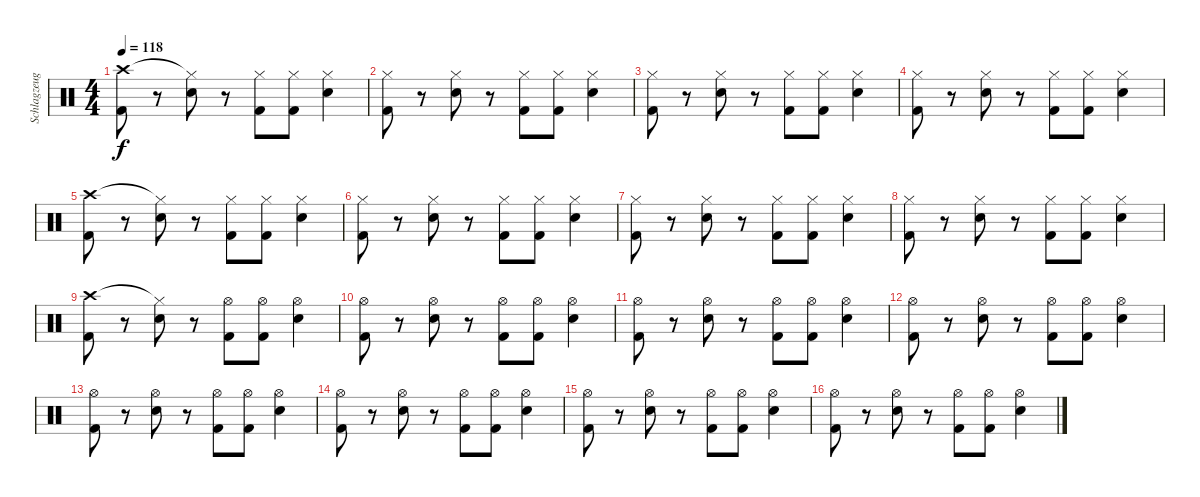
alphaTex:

\track ("Schlagzeug" "Schlagzeug") {instrument percussion}
\staff {score}
\articulation defaults
\ts (4 4)
\tempo 118
\clef neutral
\ks c
("Crash high (hit)" "Kick (hit) 2").8{dy f} r.8 ("Hi-Hat (closed)"{t} "Electric Snare (hit)").8 r.8 ("Hi-Hat (closed)" "Kick (hit) 2").8 ("Hi-Hat (closed)" "Kick (hit) 2").8 ("Hi-Hat (closed)" "Electric Snare (hit)").4 |
("Hi-Hat (closed)" "Kick (hit) 2").8 r.8 ("Hi-Hat (closed)" "Electric Snare (hit)").8 r.8 ("Hi-Hat (closed)" "Kick (hit) 2").8 ("Hi-Hat (closed)" "Kick (hit) 2").8 ("Hi-Hat (closed)" "Electric Snare (hit)").4 |
("Hi-Hat (closed)" "Kick (hit) 2").8 r.8 ("Hi-Hat (closed)" "Electric Snare (hit)").8 r.8 ("Hi-Hat (closed)" "Kick (hit) 2").8 ("Hi-Hat (closed)" "Kick (hit) 2").8 ("Hi-Hat (closed)" "Electric Snare (hit)").4 |
("Hi-Hat (closed)" "Kick (hit) 2").8 r.8 ("Hi-Hat (closed)" "Electric Snare (hit)").8 r.8 ("Hi-Hat (closed)" "Kick (hit) 2").8 ("Hi-Hat (closed)" "Kick (hit) 2").8 ("Hi-Hat (closed)" "Electric Snare (hit)").4 |
("Crash high (hit)" "Kick (hit) 2").8 r.8 ("Hi-Hat (closed)"{t} "Electric Snare (hit)").8 r.8 ("Hi-Hat (closed)" "Kick (hit) 2").8 ("Hi-Hat (closed)" "Kick (hit) 2").8 ("Hi-Hat (closed)" "Electric Snare (hit)").4 |
("Hi-Hat (closed)" "Kick (hit) 2").8 r.8 ("Hi-Hat (closed)" "Electric Snare (hit)").8 r.8 ("Hi-Hat (closed)" "Kick (hit) 2").8 ("Hi-Hat (closed)" "Kick (hit) 2").8 ("Hi-Hat (closed)" "Electric Snare (hit)").4 |
("Hi-Hat (closed)" "Kick (hit) 2").8 r.8 ("Hi-Hat (closed)" "Electric Snare (hit)").8 r.8 ("Hi-Hat (closed)" "Kick (hit) 2").8 ("Hi-Hat (closed)" "Kick (hit) 2").8 ("Hi-Hat (closed)" "Electric Snare (hit)").4 |
("Hi-Hat (closed)" "Kick (hit) 2").8 r.8 ("Hi-Hat (closed)" "Electric Snare (hit)").8 r.8 ("Hi-Hat (closed)" "Kick (hit) 2").8 ("Hi-Hat (closed)" "Kick (hit) 2").8 ("Hi-Hat (closed)" "Electric Snare (hit)").4 |
("Crash high (hit)" "Kick (hit) 2").8 r.8 ("Hi-Hat (closed)"{t} "Electric Snare (hit)").8 r.8 ("Hi-Hat (open)" "Kick (hit) 2").8 ("Hi-Hat (open)" "Kick (hit) 2").8 ("Hi-Hat (open)" "Electric Snare (hit)").4 |
("Hi-Hat (open)" "Kick (hit) 2").8 r.8 ("Hi-Hat (open)" "Electric Snare (hit)").8 r.8 ("Hi-Hat (open)" "Kick (hit) 2").8 ("Hi-Hat (open)" "Kick (hit) 2").8 ("Hi-Hat (open)" "Electric Snare (hit)").4 |
("Hi-Hat (open)" "Kick (hit) 2").8 r.8 ("Hi-Hat (open)" "Electric Snare (hit)").8 r.8 ("Hi-Hat (open)" "Kick (hit) 2").8 ("Hi-Hat (open)" "Kick (hit) 2").8 ("Hi-Hat (open)" "Electric Snare (hit)").4 |
("Hi-Hat (open)" "Kick (hit) 2").8 r.8 ("Hi-Hat (open)" "Electric Snare (hit)").8 r.8 ("Hi-Hat (open)" "Kick (hit) 2").8 ("Hi-Hat (open)" "Kick (hit) 2").8 ("Hi-Hat (open)" "Electric Snare (hit)").4 |
("Hi-Hat (open)" "Kick (hit) 2").8 r.8 ("Hi-Hat (open)" "Electric Snare (hit)").8 r.8 ("Hi-Hat (open)" "Kick (hit) 2").8 ("Hi-Hat (open)" "Kick (hit) 2").8 ("Hi-Hat (open)" "Electric Snare (hit)").4 |
("Hi-Hat (open)" "Kick (hit) 2").8 r.8 ("Hi-Hat (open)" "Electric Snare (hit)").8 r.8 ("Hi-Hat (open)" "Kick (hit) 2").8 ("Hi-Hat (open)" "Kick (hit) 2").8 ("Hi-Hat (open)" "Electric Snare (hit)").4 |
("Hi-Hat (open)" "Kick (hit) 2").8 r.8 ("Hi-Hat (open)" "Electric Snare (hit)").8 r.8 ("Hi-Hat (open)" "Kick (hit) 2").8 ("Hi-Hat (open)" "Kick (hit) 2").8 ("Hi-Hat (open)" "Electric Snare (hit)").4 |
("Hi-Hat (open)" "Kick (hit) 2").8 r.8 ("Hi-Hat (open)" "Electric Snare (hit)").8 r.8 ("Hi-Hat (open)" "Kick (hit) 2").8 ("Hi-Hat (open)" "Kick (hit) 2").8 ("Hi-Hat (open)" "Electric Snare (hit)").4
